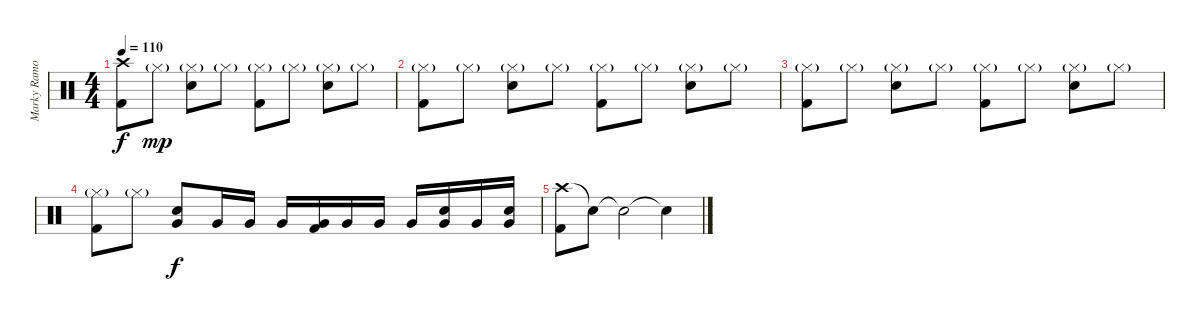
\track ("Marky Ramone-Drums" "Marky Ramo") {instrument percussion}
\staff
\articulation defaults
\ts (4 4)
\tempo 110
\clef neutral
\ks c
("Crash high (hit)" "Kick (hit) 2").8{dy f} "Hi-Hat (closed)"{g}.8{dy mp} ("Hi-Hat (closed)"{g} "Snare (hit) 2").8 "Hi-Hat (closed)"{g}.8 ("Hi-Hat (closed)"{g} "Kick (hit) 2").8 "Hi-Hat (closed)"{g}.8 ("Hi-Hat (closed)"{g} "Snare (hit) 2").8 "Hi-Hat (closed)"{g}.8 |
("Hi-Hat (closed)"{g} "Kick (hit) 2").8 "Hi-Hat (closed)"{g}.8 ("Hi-Hat (closed)"{g} "Snare (hit) 2").8 "Hi-Hat (closed)"{g}.8 ("Hi-Hat (closed)"{g} "Kick (hit) 2").8 "Hi-Hat (closed)"{g}.8 ("Hi-Hat (closed)"{g} "Snare (hit) 2").8 "Hi-Hat (closed)"{g}.8 |
("Hi-Hat (closed)"{g} "Kick (hit) 2").8 "Hi-Hat (closed)"{g}.8 ("Hi-Hat (closed)"{g} "Snare (hit) 2").8 "Hi-Hat (closed)"{g}.8 ("Hi-Hat (closed)"{g} "Kick (hit) 2").8 "Hi-Hat (closed)"{g}.8 ("Hi-Hat (closed)"{g} "Snare (hit) 2").8 "Hi-Hat (closed)"{g}.8 |
("Hi-Hat (closed)"{g} "Kick (hit) 2").8 "Hi-Hat (closed)"{g}.8 ("Very Low Tom (hit)" "Snare (hit) 2").8{dy f} "Very Low Tom (hit)".16 "Very Low Tom (hit)".16 "Very Low Tom (hit)".16 ("Very Low Tom (hit)" "Kick (hit) 2").16 "Very Low Tom (hit)".16 "Very Low Tom (hit)".16 "Very Low Tom (hit)".16 ("Very Low Tom (hit)" "Snare (hit) 2").16 "Very Low Tom (hit)".16 ("Very Low Tom (hit)" "Snare (hit) 2").16 |
("Crash high (hit)" "Kick (hit) 2").8 "Snare (hit)"{t}.8 "Snare (hit)"{t}.2 "Snare (hit)"{t}.4
